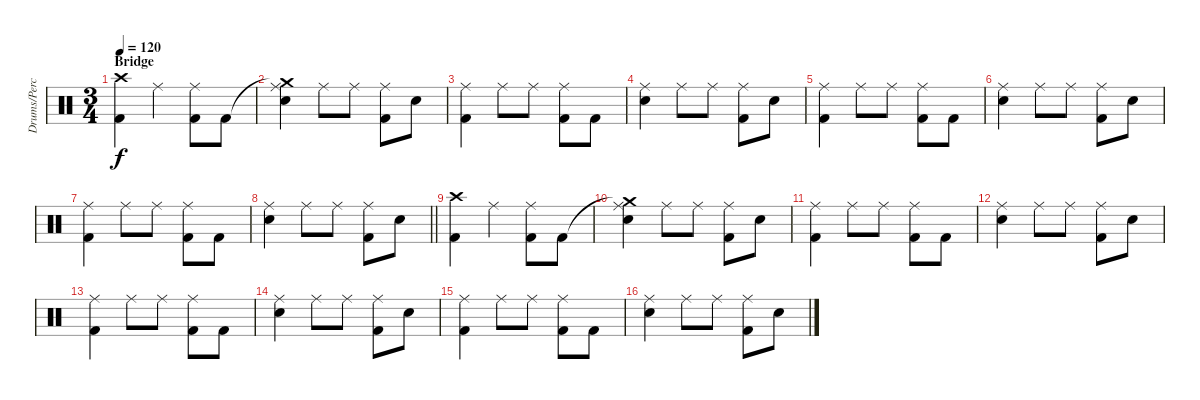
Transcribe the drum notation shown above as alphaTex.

\track ("Drums/Percussion" "Drums/Perc") {instrument percussion}
\staff {score}
\articulation defaults
\ts (3 4)
\section ("" "Bridge")
\tempo 120
\clef neutral
\ks c
("Crash high (hit)" "Kick (hit) 2").4{dy f} "Ride (middle)".4 ("Ride (middle)" "Kick (hit) 2").8 "Kick (hit) 2".8 |
("Crash medium (hit)"{t} "Ride (middle)" "Snare (hit) 2").4 "Ride (middle)".8 "Ride (middle)".8 ("Ride (middle)" "Kick (hit) 2").8 "Snare (hit) 2".8 |
("Ride (middle)" "Kick (hit) 2").4 "Ride (middle)".8 "Ride (middle)".8 ("Ride (middle)" "Kick (hit) 2").8 "Kick (hit) 2".8 |
("Ride (middle)" "Snare (hit) 2").4 "Ride (middle)".8 "Ride (middle)".8 ("Ride (middle)" "Kick (hit) 2").8 "Snare (hit) 2".8 |
("Ride (middle)" "Kick (hit) 2").4 "Ride (middle)".8 "Ride (middle)".8 ("Ride (middle)" "Kick (hit) 2").8 "Kick (hit) 2".8 |
("Ride (middle)" "Snare (hit) 2").4 "Ride (middle)".8 "Ride (middle)".8 ("Ride (middle)" "Kick (hit) 2").8 "Snare (hit) 2".8 |
("Ride (middle)" "Kick (hit) 2").4 "Ride (middle)".8 "Ride (middle)".8 ("Ride (middle)" "Kick (hit) 2").8 "Kick (hit) 2".8 |
\barLineRight lightlight
("Ride (middle)" "Snare (hit) 2").4 "Ride (middle)".8 "Ride (middle)".8 ("Ride (middle)" "Kick (hit) 2").8 "Snare (hit) 2".8 |
("Crash high (hit)" "Kick (hit) 2").4 "Ride (middle)".4 ("Ride (middle)" "Kick (hit) 2").8 "Kick (hit) 2".8 |
("Crash medium (hit)"{t} "Ride (middle)" "Snare (hit) 2").4 "Ride (middle)".8 "Ride (middle)".8 ("Ride (middle)" "Kick (hit) 2").8 "Snare (hit) 2".8 |
("Ride (middle)" "Kick (hit) 2").4 "Ride (middle)".8 "Ride (middle)".8 ("Ride (middle)" "Kick (hit) 2").8 "Kick (hit) 2".8 |
("Ride (middle)" "Snare (hit) 2").4 "Ride (middle)".8 "Ride (middle)".8 ("Ride (middle)" "Kick (hit) 2").8 "Snare (hit) 2".8 |
("Ride (middle)" "Kick (hit) 2").4 "Ride (middle)".8 "Ride (middle)".8 ("Ride (middle)" "Kick (hit) 2").8 "Kick (hit) 2".8 |
("Ride (middle)" "Snare (hit) 2").4 "Ride (middle)".8 "Ride (middle)".8 ("Ride (middle)" "Kick (hit) 2").8 "Snare (hit) 2".8 |
("Ride (middle)" "Kick (hit) 2").4 "Ride (middle)".8 "Ride (middle)".8 ("Ride (middle)" "Kick (hit) 2").8 "Kick (hit) 2".8 |
("Ride (middle)" "Snare (hit) 2").4 "Ride (middle)".8 "Ride (middle)".8 ("Ride (middle)" "Kick (hit) 2").8 "Snare (hit) 2".8
